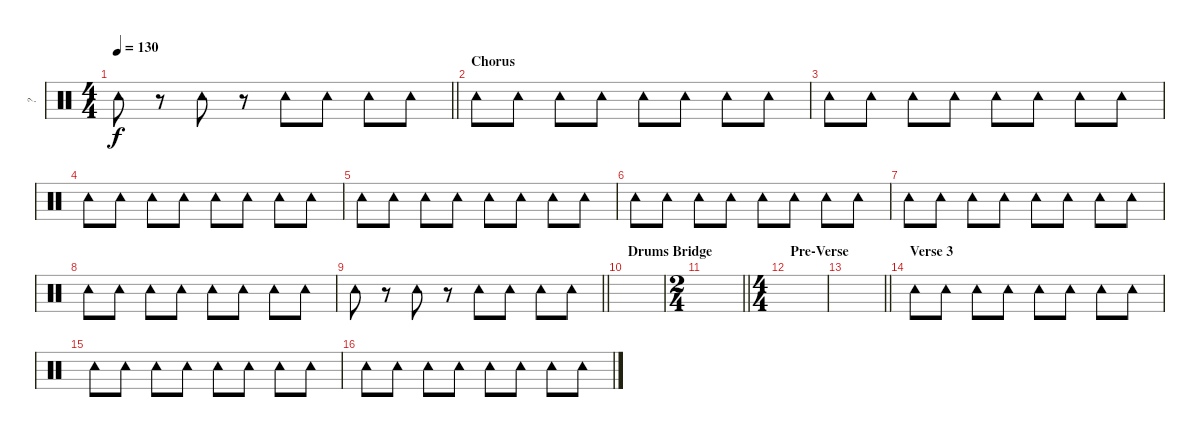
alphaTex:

\track ("?" "?") {instrument percussion}
\staff {score}
\articulation defaults
\ts (4 4)
\tempo 130
\clef neutral
\barLineRight lightlight
\ks c "Tambourine (hit)".8{dy f}
r.8 "Tambourine (hit)".8 r.8 "Tambourine (hit)".8 "Tambourine (hit)".8 "Tambourine (hit)".8 "Tambourine (hit)".8 |
\section ("" "Chorus")
"Tambourine (hit)".8 "Tambourine (hit)".8 "Tambourine (hit)".8 "Tambourine (hit)".8 "Tambourine (hit)".8 "Tambourine (hit)".8 "Tambourine (hit)".8 "Tambourine (hit)".8 |
"Tambourine (hit)".8 "Tambourine (hit)".8 "Tambourine (hit)".8 "Tambourine (hit)".8 "Tambourine (hit)".8 "Tambourine (hit)".8 "Tambourine (hit)".8 "Tambourine (hit)".8 |
"Tambourine (hit)".8 "Tambourine (hit)".8 "Tambourine (hit)".8 "Tambourine (hit)".8 "Tambourine (hit)".8 "Tambourine (hit)".8 "Tambourine (hit)".8 "Tambourine (hit)".8 |
"Tambourine (hit)".8 "Tambourine (hit)".8 "Tambourine (hit)".8 "Tambourine (hit)".8 "Tambourine (hit)".8 "Tambourine (hit)".8 "Tambourine (hit)".8 "Tambourine (hit)".8 |
"Tambourine (hit)".8 "Tambourine (hit)".8 "Tambourine (hit)".8 "Tambourine (hit)".8 "Tambourine (hit)".8 "Tambourine (hit)".8 "Tambourine (hit)".8 "Tambourine (hit)".8 |
"Tambourine (hit)".8 "Tambourine (hit)".8 "Tambourine (hit)".8 "Tambourine (hit)".8 "Tambourine (hit)".8 "Tambourine (hit)".8 "Tambourine (hit)".8 "Tambourine (hit)".8 |
"Tambourine (hit)".8 "Tambourine (hit)".8 "Tambourine (hit)".8 "Tambourine (hit)".8 "Tambourine (hit)".8 "Tambourine (hit)".8 "Tambourine (hit)".8 "Tambourine (hit)".8 |
\barLineRight lightlight "Tambourine (hit)".8
r.8 "Tambourine (hit)".8 r.8 "Tambourine (hit)".8 "Tambourine (hit)".8 "Tambourine (hit)".8 "Tambourine (hit)".8 |
\section ("" "Drums Bridge")
|
\ts (2 4)
\barLineRight lightlight
|
\ts (4 4)
\section ("" "Pre-Verse")
|
\barLineRight lightlight
|
\section ("" "Verse 3")
"Tambourine (hit)".8 "Tambourine (hit)".8 "Tambourine (hit)".8 "Tambourine (hit)".8 "Tambourine (hit)".8 "Tambourine (hit)".8 "Tambourine (hit)".8 "Tambourine (hit)".8 |
"Tambourine (hit)".8 "Tambourine (hit)".8 "Tambourine (hit)".8 "Tambourine (hit)".8 "Tambourine (hit)".8 "Tambourine (hit)".8 "Tambourine (hit)".8 "Tambourine (hit)".8 |
"Tambourine (hit)".8 "Tambourine (hit)".8 "Tambourine (hit)".8 "Tambourine (hit)".8 "Tambourine (hit)".8 "Tambourine (hit)".8 "Tambourine (hit)".8 "Tambourine (hit)".8
